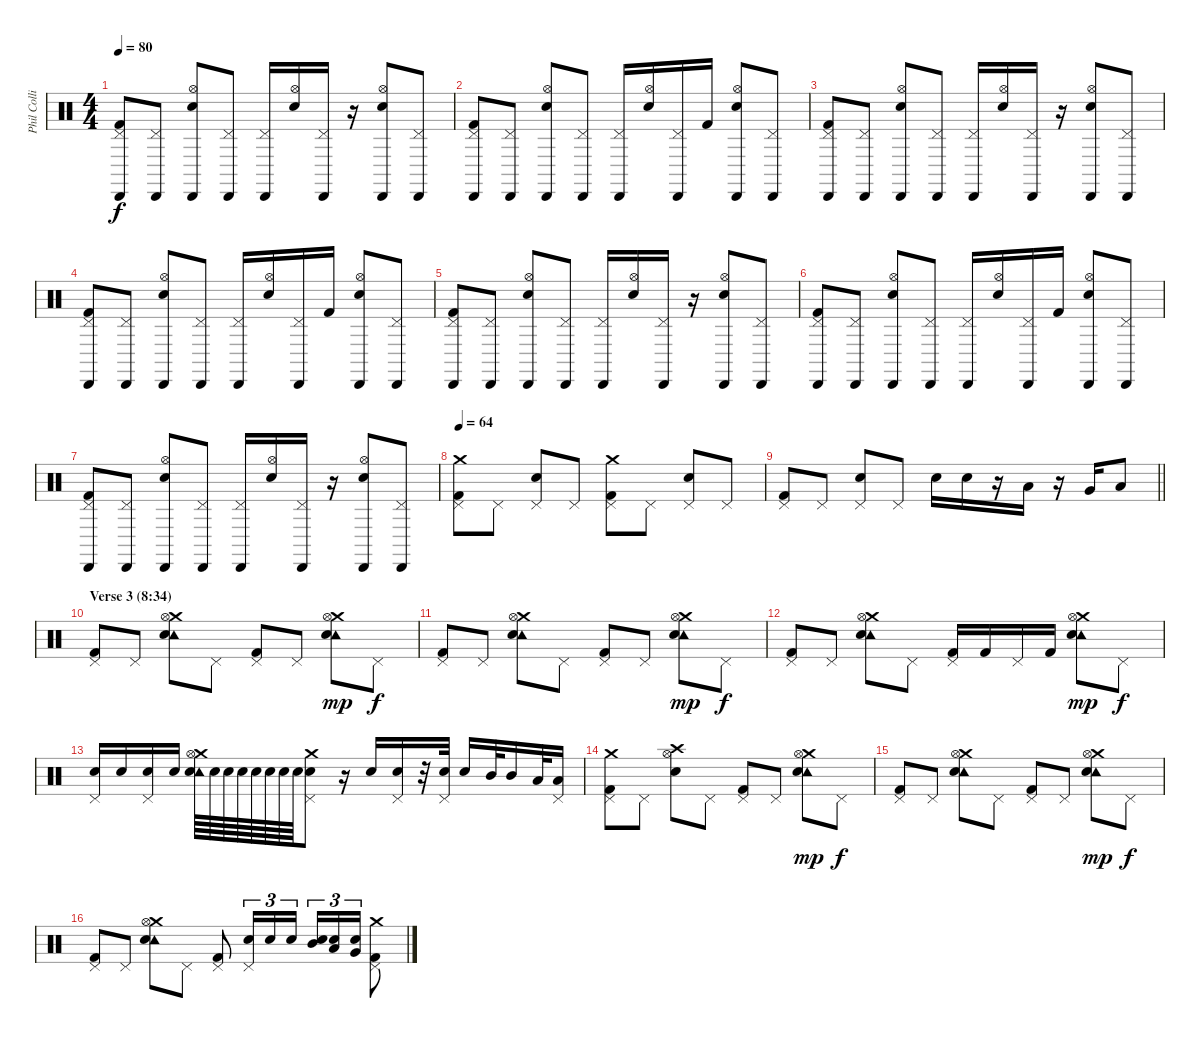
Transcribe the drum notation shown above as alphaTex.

\track ("Phil Collins (drums)" "Phil Colli") {instrument percussion}
\staff {score}
\articulation defaults
\ts (4 4)
\tempo 80
\clef neutral
\ks c
("Cabasa (hit)" "Pedal Hi-Hat (hit)" "Kick (hit) 2").8{dy f} ("Cabasa (hit)" "Pedal Hi-Hat (hit)").8 ("Cabasa (hit)" "Hi-Hat (open)" "Electric Snare (hit)").8 ("Cabasa (hit)" "Pedal Hi-Hat (hit)").8 ("Cabasa (hit)" "Pedal Hi-Hat (hit)").16 ("Hi-Hat (open)" "Electric Snare (hit)").16 ("Cabasa (hit)" "Pedal Hi-Hat (hit)").16 r.16 ("Cabasa (hit)" "Hi-Hat (open)" "Electric Snare (hit)").8 ("Cabasa (hit)" "Pedal Hi-Hat (hit)").8 |
("Cabasa (hit)" "Pedal Hi-Hat (hit)" "Kick (hit) 2").8 ("Cabasa (hit)" "Pedal Hi-Hat (hit)").8 ("Cabasa (hit)" "Hi-Hat (open)" "Electric Snare (hit)").8 ("Cabasa (hit)" "Pedal Hi-Hat (hit)").8 ("Cabasa (hit)" "Pedal Hi-Hat (hit)").16 ("Hi-Hat (open)" "Electric Snare (hit)").16 ("Cabasa (hit)" "Pedal Hi-Hat (hit)").16 "Kick (hit) 2".16 ("Cabasa (hit)" "Hi-Hat (open)" "Electric Snare (hit)").8 ("Cabasa (hit)" "Pedal Hi-Hat (hit)").8 |
("Cabasa (hit)" "Pedal Hi-Hat (hit)" "Kick (hit) 2").8 ("Cabasa (hit)" "Pedal Hi-Hat (hit)").8 ("Cabasa (hit)" "Hi-Hat (open)" "Electric Snare (hit)").8 ("Cabasa (hit)" "Pedal Hi-Hat (hit)").8 ("Cabasa (hit)" "Pedal Hi-Hat (hit)").16 ("Hi-Hat (open)" "Electric Snare (hit)").16 ("Cabasa (hit)" "Pedal Hi-Hat (hit)").16 r.16 ("Cabasa (hit)" "Hi-Hat (open)" "Electric Snare (hit)").8 ("Cabasa (hit)" "Pedal Hi-Hat (hit)").8 |
("Cabasa (hit)" "Pedal Hi-Hat (hit)" "Kick (hit) 2").8 ("Cabasa (hit)" "Pedal Hi-Hat (hit)").8 ("Cabasa (hit)" "Hi-Hat (open)" "Electric Snare (hit)").8 ("Cabasa (hit)" "Pedal Hi-Hat (hit)").8 ("Cabasa (hit)" "Pedal Hi-Hat (hit)").16 ("Hi-Hat (open)" "Electric Snare (hit)").16 ("Cabasa (hit)" "Pedal Hi-Hat (hit)").16 "Kick (hit) 2".16 ("Cabasa (hit)" "Hi-Hat (open)" "Electric Snare (hit)").8 ("Cabasa (hit)" "Pedal Hi-Hat (hit)").8 |
("Cabasa (hit)" "Pedal Hi-Hat (hit)" "Kick (hit) 2").8 ("Cabasa (hit)" "Pedal Hi-Hat (hit)").8 ("Cabasa (hit)" "Hi-Hat (open)" "Electric Snare (hit)").8 ("Cabasa (hit)" "Pedal Hi-Hat (hit)").8 ("Cabasa (hit)" "Pedal Hi-Hat (hit)").16 ("Hi-Hat (open)" "Electric Snare (hit)").16 ("Cabasa (hit)" "Pedal Hi-Hat (hit)").16 r.16 ("Cabasa (hit)" "Hi-Hat (open)" "Electric Snare (hit)").8 ("Cabasa (hit)" "Pedal Hi-Hat (hit)").8 |
("Cabasa (hit)" "Pedal Hi-Hat (hit)" "Kick (hit) 2").8 ("Cabasa (hit)" "Pedal Hi-Hat (hit)").8 ("Cabasa (hit)" "Hi-Hat (open)" "Electric Snare (hit)").8 ("Cabasa (hit)" "Pedal Hi-Hat (hit)").8 ("Cabasa (hit)" "Pedal Hi-Hat (hit)").16 ("Hi-Hat (open)" "Electric Snare (hit)").16 ("Cabasa (hit)" "Pedal Hi-Hat (hit)").16 "Kick (hit) 2".16 ("Cabasa (hit)" "Hi-Hat (open)" "Electric Snare (hit)").8 ("Cabasa (hit)" "Pedal Hi-Hat (hit)").8 |
("Cabasa (hit)" "Pedal Hi-Hat (hit)" "Kick (hit) 2").8 ("Cabasa (hit)" "Pedal Hi-Hat (hit)").8 ("Cabasa (hit)" "Hi-Hat (open)" "Electric Snare (hit)").8 ("Cabasa (hit)" "Pedal Hi-Hat (hit)").8 ("Cabasa (hit)" "Pedal Hi-Hat (hit)").16 ("Hi-Hat (open)" "Electric Snare (hit)").16 ("Cabasa (hit)" "Pedal Hi-Hat (hit)").16 r.16 ("Cabasa (hit)" "Hi-Hat (open)" "Electric Snare (hit)").8 ("Cabasa (hit)" "Pedal Hi-Hat (hit)").8 |
\tempo 64
("Crash medium (hit)" "Pedal Hi-Hat (hit)" "Kick (hit) 2").8 "Pedal Hi-Hat (hit)".8 ("Pedal Hi-Hat (hit)" "Electric Snare (hit)").8 "Pedal Hi-Hat (hit)".8 ("Crash medium (hit)" "Pedal Hi-Hat (hit)" "Kick (hit) 2").8 "Pedal Hi-Hat (hit)".8 ("Pedal Hi-Hat (hit)" "Electric Snare (hit)").8 "Pedal Hi-Hat (hit)".8 |
\barLineRight lightlight
("Pedal Hi-Hat (hit)" "Kick (hit) 2").8 "Pedal Hi-Hat (hit)".8 ("Pedal Hi-Hat (hit)" "Electric Snare (hit)").8 "Pedal Hi-Hat (hit)".8 "Electric Snare (hit)".16 "Electric Snare (hit)".16 r.16 "Low Tom (hit)".16 r.16 "Very Low Tom (hit)".16 "Low Floor Tom (hit)".8 |
\section ("" "Verse 3 (8:34)")
("Pedal Hi-Hat (hit)" "Kick (hit) 2").8 "Pedal Hi-Hat (hit)".8 ("Tambourine (hit)" "Crash medium (hit)" "Hi-Hat (open)" "Electric Snare (hit)").8 "Pedal Hi-Hat (hit)".8 ("Pedal Hi-Hat (hit)" "Kick (hit) 2").8 "Pedal Hi-Hat (hit)".8 ("Tambourine (hit)" "Crash medium (hit)" "Hi-Hat (open)" "Electric Snare (hit)").8{dy mp} "Pedal Hi-Hat (hit)".8{dy f} |
("Pedal Hi-Hat (hit)" "Kick (hit) 2").8 "Pedal Hi-Hat (hit)".8 ("Tambourine (hit)" "Crash medium (hit)" "Hi-Hat (open)" "Electric Snare (hit)").8 "Pedal Hi-Hat (hit)".8 ("Pedal Hi-Hat (hit)" "Kick (hit) 2").8 "Pedal Hi-Hat (hit)".8 ("Tambourine (hit)" "Crash medium (hit)" "Hi-Hat (open)" "Electric Snare (hit)").8{dy mp} "Pedal Hi-Hat (hit)".8{dy f} |
("Pedal Hi-Hat (hit)" "Kick (hit) 2").8 "Pedal Hi-Hat (hit)".8 ("Tambourine (hit)" "Crash medium (hit)" "Hi-Hat (open)" "Electric Snare (hit)").8 "Pedal Hi-Hat (hit)".8 ("Pedal Hi-Hat (hit)" "Kick (hit) 2").16 "Kick (hit) 2".16 "Pedal Hi-Hat (hit)".16 "Kick (hit) 2".16 ("Tambourine (hit)" "Crash medium (hit)" "Hi-Hat (open)" "Electric Snare (hit)").8{dy mp} "Pedal Hi-Hat (hit)".8{dy f} |
("Pedal Hi-Hat (hit)" "Electric Snare (hit)").16 "Electric Snare (hit)".16 ("Pedal Hi-Hat (hit)" "Electric Snare (hit)").16 "Electric Snare (hit)".16 ("Tambourine (hit)" "Crash medium (hit)" "Hi-Hat (open)" "Electric Snare (hit)").64 "Electric Snare (hit)".64 "Electric Snare (hit)".64 "Electric Snare (hit)".64 "Electric Snare (hit)".64 "Electric Snare (hit)".64 "Electric Snare (hit)".64 "Electric Snare (hit)".64 ("Crash medium (hit)" "Pedal Hi-Hat (hit)" "Electric Snare (hit)").8 r.16 "Electric Snare (hit)".16 ("Pedal Hi-Hat (hit)" "Electric Snare (hit)").16 r.32 ("Pedal Hi-Hat (hit)" "Electric Snare (hit)").32 "Electric Snare (hit)".16 "Mid Tom (hit)".32 "Mid Tom (hit)".16 "Low Tom (hit)".32 ("Pedal Hi-Hat (hit)" "Low Tom (hit)").16 |
("Crash medium (hit)" "Pedal Hi-Hat (hit)" "Kick (hit) 2").8 "Pedal Hi-Hat (hit)".8 ("Crash high (hit)" "Hi-Hat (open)" "Electric Snare (hit)").8 "Pedal Hi-Hat (hit)".8 ("Pedal Hi-Hat (hit)" "Kick (hit) 2").8 "Pedal Hi-Hat (hit)".8 ("Tambourine (hit)" "Crash medium (hit)" "Hi-Hat (open)" "Electric Snare (hit)").8{dy mp} "Pedal Hi-Hat (hit)".8{dy f} |
("Pedal Hi-Hat (hit)" "Kick (hit) 2").8 "Pedal Hi-Hat (hit)".8 ("Tambourine (hit)" "Crash medium (hit)" "Hi-Hat (open)" "Electric Snare (hit)").8 "Pedal Hi-Hat (hit)".8 ("Pedal Hi-Hat (hit)" "Kick (hit) 2").8 "Pedal Hi-Hat (hit)".8 ("Tambourine (hit)" "Crash medium (hit)" "Hi-Hat (open)" "Electric Snare (hit)").8{dy mp} "Pedal Hi-Hat (hit)".8{dy f} |
("Pedal Hi-Hat (hit)" "Kick (hit) 2").8 "Pedal Hi-Hat (hit)".8 ("Tambourine (hit)" "Crash medium (hit)" "Hi-Hat (open)" "Electric Snare (hit)").8 "Pedal Hi-Hat (hit)".8 ("Pedal Hi-Hat (hit)" "Kick (hit) 2").8 ("Pedal Hi-Hat (hit)" "Electric Snare (hit)").16{tu (3 2)} "Electric Snare (hit)".16{tu (3 2)} "Electric Snare (hit)".16{tu (3 2)} ("Mid Tom (hit)" "Electric Snare (hit)").16{tu (3 2)} ("Low Tom (hit)" "Electric Snare (hit)").16{tu (3 2)} ("Very Low Tom (hit)" "Electric Snare (hit)").16{tu (3 2)} ("Crash medium (hit)" "Pedal Hi-Hat (hit)" "Kick (hit) 2").8
